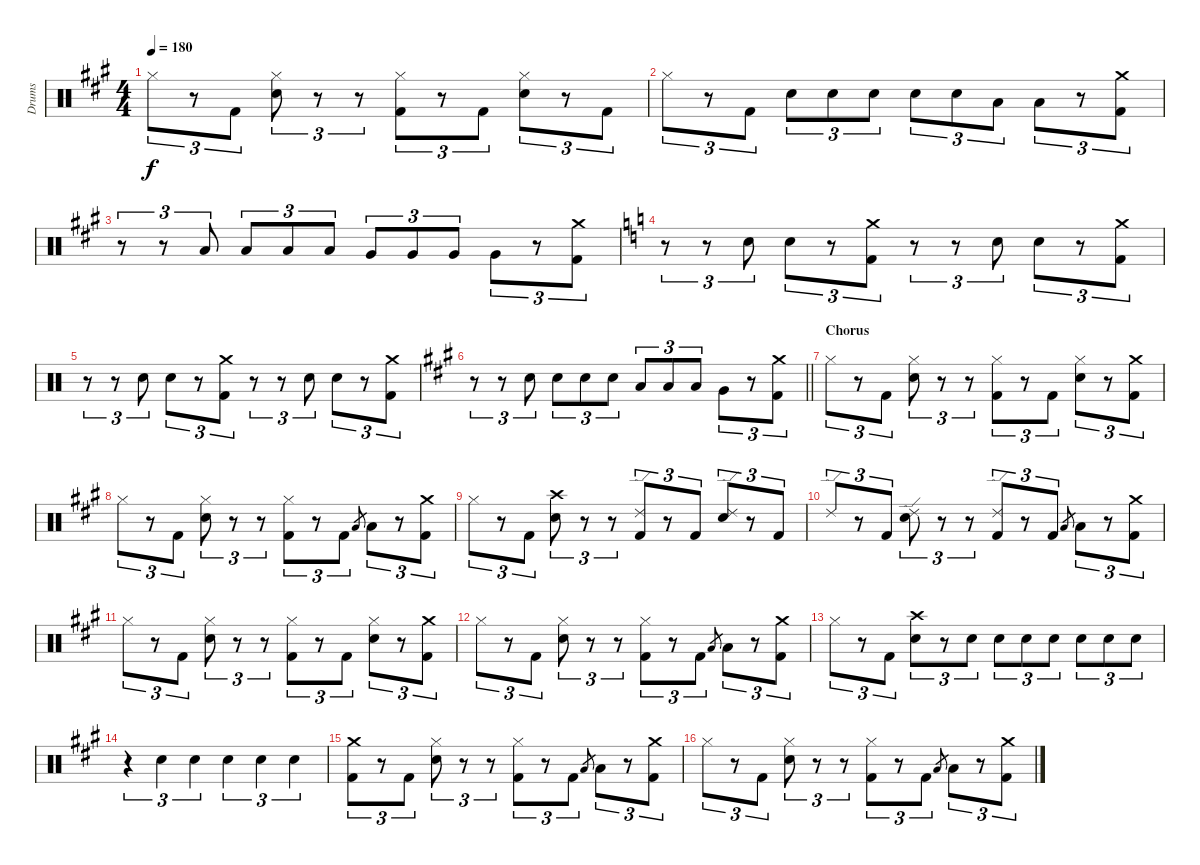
\track ("Drums" "Drums") {instrument percussion}
\staff {score}
\articulation defaults
\ts (4 4)
\tempo 180
\clef neutral
\ks a "Hi-Hat (closed)".8{tu (3 2) dy f}
r.8{tu (3 2)} "Kick (hit) 2".8{tu (3 2)} ("Hi-Hat (closed)" "Snare (hit) 2").8{tu (3 2)} r.8{tu (3 2)} r.8{tu (3 2)} ("Hi-Hat (closed)" "Kick (hit) 2").8{tu (3 2)} r.8{tu (3 2)} "Kick (hit) 2".8{tu (3 2)} ("Hi-Hat (closed)" "Snare (hit) 2").8{tu (3 2)} r.8{tu (3 2)} "Kick (hit) 2".8{tu (3 2)} |
"Hi-Hat (closed)".8{tu (3 2)} r.8{tu (3 2)} "Kick (hit) 2".8{tu (3 2)} "Snare (hit) 2".8{tu (3 2)} "Snare (hit) 2".8{tu (3 2)} "Snare (hit) 2".8{tu (3 2)} "Snare (hit) 2".8{tu (3 2)} "Snare (hit) 2".8{tu (3 2)} "Low Tom (hit)".8{tu (3 2)} "Low Tom (hit)".8{tu (3 2)} r.8{tu (3 2)} ("Crash medium (hit)" "Kick (hit) 2").8{tu (3 2)} |
r.8{tu (3 2)} r.8{tu (3 2)} "Low Tom (hit)".8{tu (3 2)} "Low Tom (hit)".8{tu (3 2)} "Low Tom (hit)".8{tu (3 2)} "Low Tom (hit)".8{tu (3 2)} "Very Low Tom (hit)".8{tu (3 2)} "Very Low Tom (hit)".8{tu (3 2)} "Very Low Tom (hit)".8{tu (3 2)} "Very Low Tom (hit)".8{tu (3 2)} r.8{tu (3 2)} ("Crash medium (hit)" "Kick (hit) 2").8{tu (3 2)} |
\ks c
r.8{tu (3 2)} r.8{tu (3 2)} "Snare (hit) 2".8{tu (3 2)} "Snare (hit) 2".8{tu (3 2)} r.8{tu (3 2)} ("Crash medium (hit)" "Kick (hit) 2").8{tu (3 2)} r.8{tu (3 2)} r.8{tu (3 2)} "Snare (hit) 2".8{tu (3 2)} "Snare (hit) 2".8{tu (3 2)} r.8{tu (3 2)} ("Crash medium (hit)" "Kick (hit) 2").8{tu (3 2)} |
r.8{tu (3 2)} r.8{tu (3 2)} "Snare (hit) 2".8{tu (3 2)} "Snare (hit) 2".8{tu (3 2)} r.8{tu (3 2)} ("Crash medium (hit)" "Kick (hit) 2").8{tu (3 2)} r.8{tu (3 2)} r.8{tu (3 2)} "Snare (hit) 2".8{tu (3 2)} "Snare (hit) 2".8{tu (3 2)} r.8{tu (3 2)} ("Crash medium (hit)" "Kick (hit) 2").8{tu (3 2)} |
\barLineRight lightlight
\ks a
r.8{tu (3 2)} r.8{tu (3 2)} "Snare (hit) 2".8{tu (3 2)} "Snare (hit) 2".8{tu (3 2)} "Snare (hit) 2".8{tu (3 2)} "Snare (hit) 2".8{tu (3 2)} "Low Tom (hit)".8{tu (3 2)} "Low Tom (hit)".8{tu (3 2)} "Low Tom (hit)".8{tu (3 2)} "Very Low Tom (hit)".8{tu (3 2)} r.8{tu (3 2)} ("Crash medium (hit)" "Kick (hit) 2").8{tu (3 2)} |
\section ("" "Chorus")
"Hi-Hat (closed)".8{tu (3 2)} r.8{tu (3 2)} "Kick (hit) 2".8{tu (3 2)} ("Hi-Hat (closed)" "Snare (hit) 2").8{tu (3 2)} r.8{tu (3 2)} r.8{tu (3 2)} ("Hi-Hat (closed)" "Kick (hit) 2").8{tu (3 2)} r.8{tu (3 2)} "Kick (hit) 2".8{tu (3 2)} ("Hi-Hat (closed)" "Snare (hit) 2").8{tu (3 2)} r.8{tu (3 2)} ("Crash medium (hit)" "Kick (hit) 2").8{tu (3 2)} |
"Hi-Hat (closed)".8{tu (3 2)} r.8{tu (3 2)} "Kick (hit) 2".8{tu (3 2)} ("Hi-Hat (closed)" "Snare (hit) 2").8{tu (3 2)} r.8{tu (3 2)} r.8{tu (3 2)} ("Hi-Hat (closed)" "Kick (hit) 2").8{tu (3 2)} r.8{tu (3 2)} "Kick (hit) 2".8{tu (3 2)} "Low Tom (hit)".8{gr} "Low Floor Tom (hit)".8{tu (3 2)} r.8{tu (3 2)} ("Crash medium (hit)" "Kick (hit) 2").8{tu (3 2)} |
"Hi-Hat (closed)".8{tu (3 2)} r.8{tu (3 2)} "Kick (hit) 2".8{tu (3 2)} ("Crash high (hit)" "Snare (hit) 2").8{tu (3 2)} r.8{tu (3 2)} r.8{tu (3 2)} ("Ride (edge) 2" "Kick (hit) 2").8{tu (3 2)} r.8{tu (3 2)} "Kick (hit) 2".8{tu (3 2)} ("Ride (edge) 2" "Snare (hit) 2").8{tu (3 2)} r.8{tu (3 2)} "Kick (hit) 2".8{tu (3 2)} |
"Ride (edge) 2".8{tu (3 2)} r.8{tu (3 2)} "Kick (hit) 2".8{tu (3 2)} ("Ride (edge) 2" "Snare (hit) 2").8{tu (3 2)} r.8{tu (3 2)} r.8{tu (3 2)} ("Ride (edge) 2" "Kick (hit) 2").8{tu (3 2)} r.8{tu (3 2)} "Kick (hit) 2".8{tu (3 2)} "Low Tom (hit)".8{gr} "Low Floor Tom (hit)".8{tu (3 2)} r.8{tu (3 2)} ("Crash medium (hit)" "Kick (hit) 2").8{tu (3 2)} |
"Hi-Hat (closed)".8{tu (3 2)} r.8{tu (3 2)} "Kick (hit) 2".8{tu (3 2)} ("Hi-Hat (closed)" "Snare (hit) 2").8{tu (3 2)} r.8{tu (3 2)} r.8{tu (3 2)} ("Hi-Hat (closed)" "Kick (hit) 2").8{tu (3 2)} r.8{tu (3 2)} "Kick (hit) 2".8{tu (3 2)} ("Hi-Hat (closed)" "Snare (hit) 2").8{tu (3 2)} r.8{tu (3 2)} ("Crash medium (hit)" "Kick (hit) 2").8{tu (3 2)} |
"Hi-Hat (closed)".8{tu (3 2)} r.8{tu (3 2)} "Kick (hit) 2".8{tu (3 2)} ("Hi-Hat (closed)" "Snare (hit) 2").8{tu (3 2)} r.8{tu (3 2)} r.8{tu (3 2)} ("Hi-Hat (closed)" "Kick (hit) 2").8{tu (3 2)} r.8{tu (3 2)} "Kick (hit) 2".8{tu (3 2)} "Low Tom (hit)".8{gr} "Low Floor Tom (hit)".8{tu (3 2)} r.8{tu (3 2)} ("Crash medium (hit)" "Kick (hit) 2").8{tu (3 2)} |
"Hi-Hat (closed)".8{tu (3 2)} r.8{tu (3 2)} "Kick (hit) 2".8{tu (3 2)} ("Crash high (hit)" "Snare (hit) 2").8{tu (3 2)} r.8{tu (3 2)} "Snare (hit) 2".8{tu (3 2)} "Snare (hit) 2".8{tu (3 2)} "Snare (hit) 2".8{tu (3 2)} "Snare (hit) 2".8{tu (3 2)} "Snare (hit) 2".8{tu (3 2)} "Snare (hit) 2".8{tu (3 2)} "Snare (hit) 2".8{tu (3 2)} |
r.4{tu (3 2)} "Snare (hit) 2".4{tu (3 2)} "Snare (hit) 2".4{tu (3 2)} "Snare (hit) 2".4{tu (3 2)} "Snare (hit) 2".4{tu (3 2)} "Snare (hit) 2".4{tu (3 2)} |
("Crash medium (hit)" "Kick (hit) 2").8{tu (3 2)} r.8{tu (3 2)} "Kick (hit) 2".8{tu (3 2)} ("Hi-Hat (closed)" "Snare (hit) 2").8{tu (3 2)} r.8{tu (3 2)} r.8{tu (3 2)} ("Hi-Hat (closed)" "Kick (hit) 2").8{tu (3 2)} r.8{tu (3 2)} "Kick (hit) 2".8{tu (3 2)} "Low Tom (hit)".8{gr} "Low Floor Tom (hit)".8{tu (3 2)} r.8{tu (3 2)} ("Crash medium (hit)" "Kick (hit) 2").8{tu (3 2)} |
"Hi-Hat (closed)".8{tu (3 2)} r.8{tu (3 2)} "Kick (hit) 2".8{tu (3 2)} ("Hi-Hat (closed)" "Snare (hit) 2").8{tu (3 2)} r.8{tu (3 2)} r.8{tu (3 2)} ("Hi-Hat (closed)" "Kick (hit) 2").8{tu (3 2)} r.8{tu (3 2)} "Kick (hit) 2".8{tu (3 2)} "Low Tom (hit)".8{gr} "Low Floor Tom (hit)".8{tu (3 2)} r.8{tu (3 2)} ("Crash medium (hit)" "Kick (hit) 2").8{tu (3 2)}
